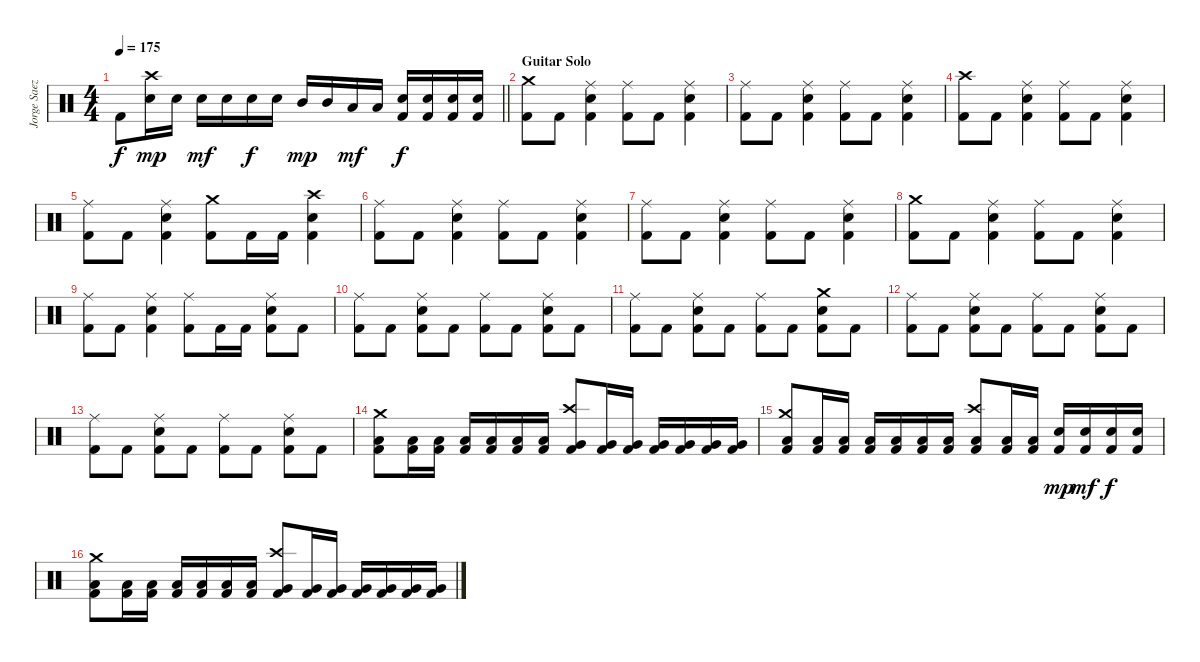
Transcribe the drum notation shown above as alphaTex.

\track ("Jorge Saez, Drums" "Jorge Saez") {instrument percussion}
\staff
\articulation defaults
\ts (4 4)
\tempo 175
\clef neutral
\barLineRight lightlight
\ks c "Kick (hit) 2".8{dy f}
("Electric Snare (hit)" "Crash high (hit)").16{dy mp} "Electric Snare (hit)".16 "Electric Snare (hit)".16{dy mf} "Electric Snare (hit)".16 "Electric Snare (hit)".16{dy f} "Electric Snare (hit)".16 "Mid Tom (hit)".16{dy mp} "Mid Tom (hit)".16 "Low Tom (hit)".16{dy mf} "Low Tom (hit)".16 ("Kick (hit) 2" "Electric Snare (hit)").16{dy f} ("Kick (hit) 2" "Electric Snare (hit)").16 ("Kick (hit) 2" "Electric Snare (hit)").16 ("Kick (hit) 2" "Electric Snare (hit)").16 |
\section ("" "Guitar Solo")
("Kick (hit) 2" "Crash medium (hit)").8 "Kick (hit) 2".8 ("Kick (hit) 2" "Electric Snare (hit)" "Ride (middle)").4 ("Kick (hit) 2" "Ride (middle)").8 "Kick (hit) 2".8 ("Kick (hit) 2" "Electric Snare (hit)" "Ride (middle)").4 |
("Kick (hit) 2" "Ride (middle)").8 "Kick (hit) 2".8 ("Kick (hit) 2" "Electric Snare (hit)" "Ride (middle)").4 ("Kick (hit) 2" "Ride (middle)").8 "Kick (hit) 2".8 ("Kick (hit) 2" "Electric Snare (hit)" "Ride (middle)").4 |
("Kick (hit) 2" "Crash high (hit)").8 "Kick (hit) 2".8 ("Kick (hit) 2" "Electric Snare (hit)" "Ride (middle)").4 ("Kick (hit) 2" "Ride (middle)").8 "Kick (hit) 2".8 ("Kick (hit) 2" "Electric Snare (hit)" "Ride (middle)").4 |
("Kick (hit) 2" "Ride (middle)").8 "Kick (hit) 2".8 ("Kick (hit) 2" "Electric Snare (hit)" "Ride (middle)").4 ("Kick (hit) 2" "Crash medium (hit)").8 "Kick (hit) 2".16 "Kick (hit) 2".16 ("Kick (hit) 2" "Electric Snare (hit)" "Crash high (hit)").4 |
("Kick (hit) 2" "Ride (middle)").8 "Kick (hit) 2".8 ("Kick (hit) 2" "Electric Snare (hit)" "Ride (middle)").4 ("Kick (hit) 2" "Ride (middle)").8 "Kick (hit) 2".8 ("Kick (hit) 2" "Electric Snare (hit)" "Ride (middle)").4 |
("Kick (hit) 2" "Ride (middle)").8 "Kick (hit) 2".8 ("Kick (hit) 2" "Electric Snare (hit)" "Ride (middle)").4 ("Kick (hit) 2" "Ride (middle)").8 "Kick (hit) 2".8 ("Kick (hit) 2" "Electric Snare (hit)" "Ride (middle)").4 |
("Kick (hit) 2" "Crash medium (hit)").8 "Kick (hit) 2".8 ("Kick (hit) 2" "Electric Snare (hit)" "Ride (middle)").4 ("Kick (hit) 2" "Ride (middle)").8 "Kick (hit) 2".8 ("Kick (hit) 2" "Electric Snare (hit)" "Ride (middle)").4 |
("Kick (hit) 2" "Ride (middle)").8 "Kick (hit) 2".8 ("Kick (hit) 2" "Electric Snare (hit)" "Ride (middle)").4 ("Kick (hit) 2" "Ride (middle)").8 "Kick (hit) 2".16 "Kick (hit) 2".16 ("Kick (hit) 2" "Electric Snare (hit)" "Ride (middle)").8 "Kick (hit) 2".8 |
("Kick (hit) 2" "Ride (middle)").8 "Kick (hit) 2".8 ("Kick (hit) 2" "Electric Snare (hit)" "Ride (middle)").8 "Kick (hit) 2".8 ("Kick (hit) 2" "Ride (middle)").8 "Kick (hit) 2".8 ("Kick (hit) 2" "Electric Snare (hit)" "Ride (middle)").8 "Kick (hit) 2".8 |
("Kick (hit) 2" "Ride (middle)").8 "Kick (hit) 2".8 ("Kick (hit) 2" "Electric Snare (hit)" "Ride (middle)").8 "Kick (hit) 2".8 ("Kick (hit) 2" "Ride (middle)").8 "Kick (hit) 2".8 ("Kick (hit) 2" "Electric Snare (hit)" "Crash medium (hit)").8 "Kick (hit) 2".8 |
("Kick (hit) 2" "Ride (middle)").8 "Kick (hit) 2".8 ("Kick (hit) 2" "Electric Snare (hit)" "Ride (middle)").8 "Kick (hit) 2".8 ("Kick (hit) 2" "Ride (middle)").8 "Kick (hit) 2".8 ("Kick (hit) 2" "Electric Snare (hit)" "Ride (middle)").8 "Kick (hit) 2".8 |
("Kick (hit) 2" "Ride (middle)").8 "Kick (hit) 2".8 ("Kick (hit) 2" "Electric Snare (hit)" "Ride (middle)").8 "Kick (hit) 2".8 ("Kick (hit) 2" "Ride (middle)").8 "Kick (hit) 2".8 ("Kick (hit) 2" "Electric Snare (hit)" "Ride (middle)").8 "Kick (hit) 2".8 |
("Kick (hit) 2" "Low Tom (hit)" "Crash medium (hit)").8 ("Kick (hit) 2" "Low Tom (hit)").16 ("Kick (hit) 2" "Low Tom (hit)").16 ("Kick (hit) 2" "Low Tom (hit)").16 ("Kick (hit) 2" "Low Tom (hit)").16 ("Kick (hit) 2" "Low Tom (hit)").16 ("Kick (hit) 2" "Low Tom (hit)").16 ("Kick (hit) 2" "Very Low Tom (hit)" "Crash high (hit)").8 ("Kick (hit) 2" "Very Low Tom (hit)").16 ("Kick (hit) 2" "Very Low Tom (hit)").16 ("Kick (hit) 2" "Very Low Tom (hit)").16 ("Kick (hit) 2" "Very Low Tom (hit)").16 ("Kick (hit) 2" "Very Low Tom (hit)").16 ("Kick (hit) 2" "Very Low Tom (hit)").16 |
("Kick (hit) 2" "Low Floor Tom (hit)" "Crash medium (hit)").8 ("Kick (hit) 2" "Low Floor Tom (hit)").16 ("Kick (hit) 2" "Low Floor Tom (hit)").16 ("Kick (hit) 2" "Low Floor Tom (hit)").16 ("Kick (hit) 2" "Low Floor Tom (hit)").16 ("Kick (hit) 2" "Low Floor Tom (hit)").16 ("Kick (hit) 2" "Low Floor Tom (hit)").16 ("Kick (hit) 2" "Low Floor Tom (hit)" "Crash high (hit)").8 ("Kick (hit) 2" "Low Floor Tom (hit)").16 ("Kick (hit) 2" "Low Floor Tom (hit)").16 ("Kick (hit) 2" "Electric Snare (hit)").16{dy mp} ("Kick (hit) 2" "Electric Snare (hit)").16{dy mf} ("Kick (hit) 2" "Electric Snare (hit)").16{dy f} ("Kick (hit) 2" "Electric Snare (hit)").16 |
("Kick (hit) 2" "Low Tom (hit)" "Crash medium (hit)").8 ("Kick (hit) 2" "Low Tom (hit)").16 ("Kick (hit) 2" "Low Tom (hit)").16 ("Kick (hit) 2" "Low Tom (hit)").16 ("Kick (hit) 2" "Low Tom (hit)").16 ("Kick (hit) 2" "Low Tom (hit)").16 ("Kick (hit) 2" "Low Tom (hit)").16 ("Kick (hit) 2" "Very Low Tom (hit)" "Crash high (hit)").8 ("Kick (hit) 2" "Very Low Tom (hit)").16 ("Kick (hit) 2" "Very Low Tom (hit)").16 ("Kick (hit) 2" "Very Low Tom (hit)").16 ("Kick (hit) 2" "Very Low Tom (hit)").16 ("Kick (hit) 2" "Very Low Tom (hit)").16 ("Kick (hit) 2" "Very Low Tom (hit)").16
